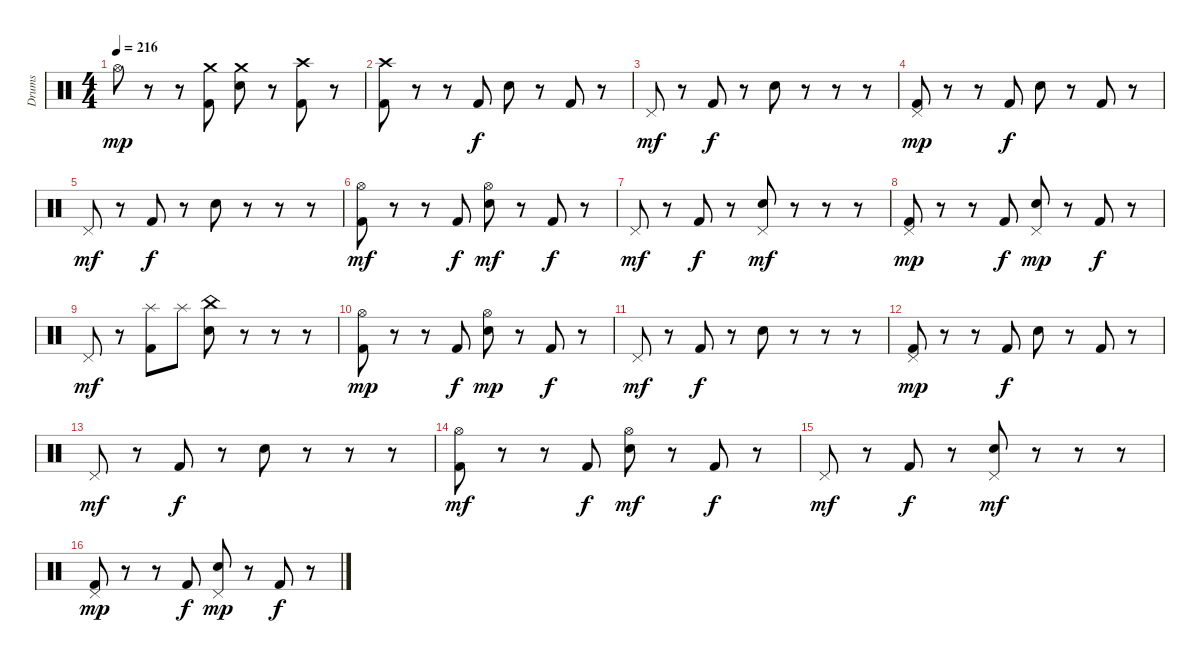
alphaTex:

\track ("Drums" "Drums") {instrument percussion}
\staff {score}
\articulation defaults
\ts (4 4)
\tempo 216
\clef neutral
\ks c "Hi-Hat (open)".8{dy mp}
r.8 r.8 ("Kick (hit) 2" "Crash medium (hit)").8 ("Snare (hit) 2" "Crash medium (hit)").8 r.8 ("Kick (hit) 2" "Crash high (hit)").8 r.8 |
("Kick (hit) 2" "Crash high (hit)").8 r.8 r.8 "Kick (hit) 2".8{dy f} "Snare (hit) 2".8 r.8 "Kick (hit) 2".8 r.8 |
"Pedal Hi-Hat (hit)".8{dy mf} r.8 "Kick (hit) 2".8{dy f} r.8 "Snare (hit) 2".8 r.8 r.8 r.8 |
("Kick (hit) 2" "Pedal Hi-Hat (hit)").8{dy mp} r.8 r.8 "Kick (hit) 2".8{dy f} "Snare (hit) 2".8 r.8 "Kick (hit) 2".8 r.8 |
"Pedal Hi-Hat (hit)".8{dy mf} r.8 "Kick (hit) 2".8{dy f} r.8 "Snare (hit) 2".8 r.8 r.8 r.8 |
("Kick (hit) 2" "Hi-Hat (open)").8{dy mf} r.8 r.8 "Kick (hit) 2".8{dy f} ("Snare (hit) 2" "Hi-Hat (open)").8{dy mf} r.8 "Kick (hit) 2".8{dy f} r.8 |
"Pedal Hi-Hat (hit)".8{dy mf} r.8 "Kick (hit) 2".8{dy f} r.8 ("Snare (hit) 2" "Pedal Hi-Hat (hit)").8{dy mf} r.8 r.8 r.8 |
("Kick (hit) 2" "Pedal Hi-Hat (hit)").8{dy mp} r.8 r.8 "Kick (hit) 2".8{dy f} ("Snare (hit) 2" "Pedal Hi-Hat (hit)").8{dy mp} r.8 "Kick (hit) 2".8{dy f} r.8 |
"Pedal Hi-Hat (hit)".8{dy mf} r.8 ("Kick (hit) 2" "Splash (hit)").8 "Splash (hit)".8 ("Snare (hit) 2" "China (hit)").8 r.8 r.8 r.8 |
("Kick (hit) 2" "Hi-Hat (open)").8{dy mp} r.8 r.8 "Kick (hit) 2".8{dy f} ("Snare (hit) 2" "Hi-Hat (open)").8{dy mp} r.8 "Kick (hit) 2".8{dy f} r.8 |
"Pedal Hi-Hat (hit)".8{dy mf} r.8 "Kick (hit) 2".8{dy f} r.8 "Snare (hit) 2".8 r.8 r.8 r.8 |
("Kick (hit) 2" "Pedal Hi-Hat (hit)").8{dy mp} r.8 r.8 "Kick (hit) 2".8{dy f} "Snare (hit) 2".8 r.8 "Kick (hit) 2".8 r.8 |
"Pedal Hi-Hat (hit)".8{dy mf} r.8 "Kick (hit) 2".8{dy f} r.8 "Snare (hit) 2".8 r.8 r.8 r.8 |
("Kick (hit) 2" "Hi-Hat (open)").8{dy mf} r.8 r.8 "Kick (hit) 2".8{dy f} ("Snare (hit) 2" "Hi-Hat (open)").8{dy mf} r.8 "Kick (hit) 2".8{dy f} r.8 |
"Pedal Hi-Hat (hit)".8{dy mf} r.8 "Kick (hit) 2".8{dy f} r.8 ("Snare (hit) 2" "Pedal Hi-Hat (hit)").8{dy mf} r.8 r.8 r.8 |
("Kick (hit) 2" "Pedal Hi-Hat (hit)").8{dy mp} r.8 r.8 "Kick (hit) 2".8{dy f} ("Snare (hit) 2" "Pedal Hi-Hat (hit)").8{dy mp} r.8 "Kick (hit) 2".8{dy f} r.8
